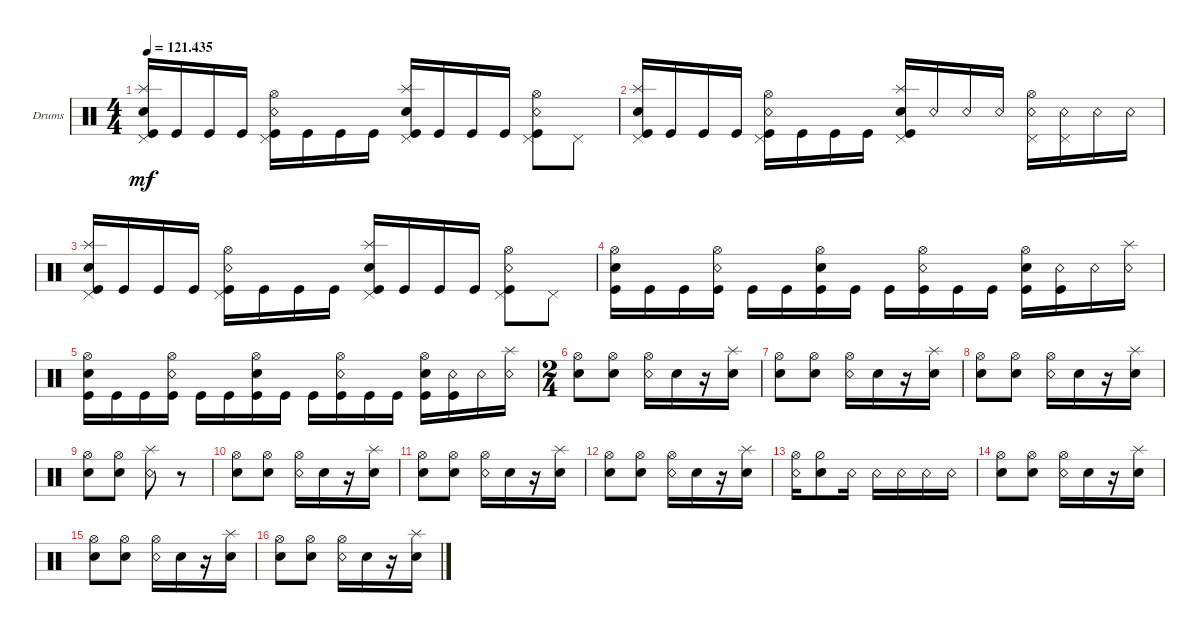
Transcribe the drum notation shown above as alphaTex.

\bracketExtendMode groupsimilarinstruments
\firstSystemTrackNameOrientation horizontal
\otherSystemsTrackNameOrientation horizontal
\track ("Drumkit" "Drums") {instrument percussion}
\staff {score}
\articulation defaults
\ts (4 4)
\tempo
121.435
\accidentals auto
\clef neutral
\ottava regular
\simile none
\ks c
("Kick (hit)" "Snare (hit) 2" "Splash (hit)" "Pedal Hi-Hat (hit)").16{dy mf} "Kick (hit)".16 "Kick (hit)".16 "Kick (hit)".16 ("Kick (hit)" "Snare (rim shot)" "Hi-Hat (open)" "Pedal Hi-Hat (hit)").16 "Kick (hit)".16 "Kick (hit)".16 "Kick (hit)".16 ("Kick (hit)" "Snare (hit) 2" "Splash (hit)" "Pedal Hi-Hat (hit)").16 "Kick (hit)".16 "Kick (hit)".16 "Kick (hit)".16 ("Kick (hit)" "Snare (rim shot)" "Hi-Hat (open)" "Pedal Hi-Hat (hit)").8 "Pedal Hi-Hat (hit)".8 |
("Kick (hit)" "Snare (hit) 2" "Splash (hit)" "Pedal Hi-Hat (hit)").16 "Kick (hit)".16 "Kick (hit)".16 "Kick (hit)".16 ("Kick (hit)" "Snare (rim shot)" "Hi-Hat (open)" "Pedal Hi-Hat (hit)").16 "Kick (hit)".16 "Kick (hit)".16 "Kick (hit)".16 ("Kick (hit)" "Snare (hit) 2" "Splash (hit)" "Pedal Hi-Hat (hit)").16 "Snare (rim shot)".16 "Snare (rim shot)".16 "Snare (rim shot)".16 ("Snare (rim shot)" "Hi-Hat (open)" "Pedal Hi-Hat (hit)").16 ("Pedal Hi-Hat (hit)" "Snare (rim shot)").16 "Snare (rim shot)".16 "Snare (rim shot)".16 |
("Kick (hit)" "Snare (hit) 2" "Splash (hit)" "Pedal Hi-Hat (hit)").16 "Kick (hit)".16 "Kick (hit)".16 "Kick (hit)".16 ("Kick (hit)" "Snare (rim shot)" "Hi-Hat (open)" "Pedal Hi-Hat (hit)").16 "Kick (hit)".16 "Kick (hit)".16 "Kick (hit)".16 ("Kick (hit)" "Snare (hit) 2" "Splash (hit)" "Pedal Hi-Hat (hit)").16 "Kick (hit)".16 "Kick (hit)".16 "Kick (hit)".16 ("Kick (hit)" "Snare (rim shot)" "Hi-Hat (open)" "Pedal Hi-Hat (hit)").8 "Pedal Hi-Hat (hit)".8 |
("Snare (hit) 2" "Hi-Hat (open)" "Kick (hit)").16 "Kick (hit)".16 "Kick (hit)".16 ("Snare (rim shot)" "Hi-Hat (open)" "Kick (hit)").16 "Kick (hit)".16 "Kick (hit)".16 ("Snare (hit) 2" "Hi-Hat (open)" "Kick (hit)").16 "Kick (hit)".16 "Kick (hit)".16 ("Snare (rim shot)" "Hi-Hat (open)" "Kick (hit)").16 "Kick (hit)".16 "Kick (hit)".16 ("Snare (hit) 2" "Hi-Hat (open)" "Kick (hit)").16 ("Snare (rim shot)" "Kick (hit)").16 "Snare (rim shot)".16 ("Snare (rim shot)" "Splash (hit)").16 |
("Snare (hit) 2" "Hi-Hat (open)" "Kick (hit)").16 "Kick (hit)".16 "Kick (hit)".16 ("Snare (rim shot)" "Hi-Hat (open)" "Kick (hit)").16 "Kick (hit)".16 "Kick (hit)".16 ("Snare (hit) 2" "Hi-Hat (open)" "Kick (hit)").16 "Kick (hit)".16 "Kick (hit)".16 ("Snare (rim shot)" "Hi-Hat (open)" "Kick (hit)").16 "Kick (hit)".16 "Kick (hit)".16 ("Snare (hit) 2" "Hi-Hat (open)" "Kick (hit)").16 ("Snare (rim shot)" "Kick (hit)").16 "Snare (rim shot)".16 ("Snare (rim shot)" "Splash (hit)").16 |
\ts (2 4)
("Snare (hit) 2" "Hi-Hat (open)").8 ("Snare (hit) 2" "Hi-Hat (open)").8 ("Snare (rim shot)" "Hi-Hat (open)").16 "Snare (hit) 2".16 r.16 ("Snare (hit) 2" "Splash (hit)").16 |
("Snare (hit) 2" "Hi-Hat (open)").8 ("Snare (hit) 2" "Hi-Hat (open)").8 ("Snare (rim shot)" "Hi-Hat (open)").16 "Snare (hit) 2".16 r.16 ("Snare (hit) 2" "Splash (hit)").16 |
("Snare (hit) 2" "Hi-Hat (open)").8 ("Snare (hit) 2" "Hi-Hat (open)").8 ("Snare (rim shot)" "Hi-Hat (open)").16 "Snare (hit) 2".16 r.16 ("Snare (hit) 2" "Splash (hit)").16 |
("Snare (hit) 2" "Hi-Hat (open)").8 ("Snare (hit) 2" "Hi-Hat (open)").8 ("Snare (rim shot)" "Splash (hit)").8 r.8 |
("Snare (hit) 2" "Hi-Hat (open)").8 ("Snare (hit) 2" "Hi-Hat (open)").8 ("Snare (rim shot)" "Hi-Hat (open)").16 "Snare (hit) 2".16 r.16 ("Snare (hit) 2" "Splash (hit)").16 |
("Snare (hit) 2" "Hi-Hat (open)").8 ("Snare (hit) 2" "Hi-Hat (open)").8 ("Snare (rim shot)" "Hi-Hat (open)").16 "Snare (hit) 2".16 r.16 ("Snare (hit) 2" "Splash (hit)").16 |
("Snare (hit) 2" "Hi-Hat (open)").8 ("Snare (hit) 2" "Hi-Hat (open)").8 ("Snare (rim shot)" "Hi-Hat (open)").16 "Snare (hit) 2".16 r.16 ("Snare (hit) 2" "Splash (hit)").16 |
("Snare (rim shot)" "Hi-Hat (open)").16 ("Snare (hit) 2" "Hi-Hat (half)").8 "Snare (rim shot)".16 "Snare (rim shot)".16 "Snare (rim shot)".16 "Snare (rim shot)".16 "Snare (rim shot)".16 |
("Snare (hit) 2" "Hi-Hat (open)").8 ("Snare (hit) 2" "Hi-Hat (open)").8 ("Snare (rim shot)" "Hi-Hat (open)").16 "Snare (hit) 2".16 r.16 ("Snare (hit) 2" "Splash (hit)").16 |
("Snare (hit) 2" "Hi-Hat (open)").8 ("Snare (hit) 2" "Hi-Hat (open)").8 ("Snare (rim shot)" "Hi-Hat (open)").16 "Snare (hit) 2".16 r.16 ("Snare (hit) 2" "Splash (hit)").16 |
("Snare (hit) 2" "Hi-Hat (open)").8 ("Snare (hit) 2" "Hi-Hat (open)").8 ("Snare (rim shot)" "Hi-Hat (open)").16 "Snare (hit) 2".16 r.16 ("Snare (hit) 2" "Splash (hit)").16
